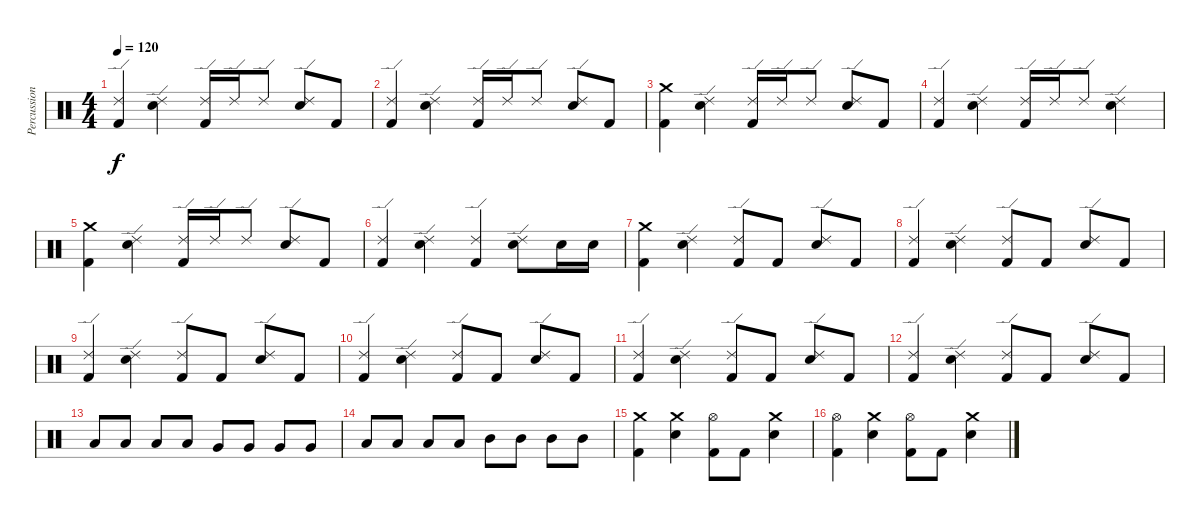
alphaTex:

\track ("Percussion" "Percussion") {instrument percussion}
\staff {score}
\articulation defaults
\ts (4 4)
\tempo 120
\clef neutral
\ks c
("Ride (edge) 2" "Kick (hit) 2").4{dy f} ("Ride (edge) 2" "Snare (hit) 2").4 ("Ride (edge) 2" "Kick (hit) 2").16 "Ride (edge) 2".16 "Ride (edge) 2".8 ("Ride (edge) 2" "Snare (hit) 2").8 "Kick (hit) 2".8 |
("Ride (edge) 2" "Kick (hit) 2").4 ("Ride (edge) 2" "Snare (hit) 2").4 ("Ride (edge) 2" "Kick (hit) 2").16 "Ride (edge) 2".16 "Ride (edge) 2".8 ("Ride (edge) 2" "Snare (hit) 2").8 "Kick (hit) 2".8 |
("Crash medium (hit)" "Kick (hit) 2").4 ("Ride (edge) 2" "Snare (hit) 2").4 ("Ride (edge) 2" "Kick (hit) 2").16 "Ride (edge) 2".16 "Ride (edge) 2".8 ("Ride (edge) 2" "Snare (hit) 2").8 "Kick (hit) 2".8 |
("Ride (edge) 2" "Kick (hit) 2").4 ("Ride (edge) 2" "Snare (hit) 2").4 ("Ride (edge) 2" "Kick (hit) 2").16 "Ride (edge) 2".16 "Ride (edge) 2".8 ("Ride (edge) 2" "Snare (hit) 2").4 |
("Crash medium (hit)" "Kick (hit) 2").4 ("Ride (edge) 2" "Snare (hit) 2").4 ("Ride (edge) 2" "Kick (hit) 2").16 "Ride (edge) 2".16 "Ride (edge) 2".8 ("Ride (edge) 2" "Snare (hit) 2").8 "Kick (hit) 2".8 |
("Ride (edge) 2" "Kick (hit) 2").4 ("Ride (edge) 2" "Snare (hit) 2").4 ("Ride (edge) 2" "Kick (hit) 2").4 ("Ride (edge) 2" "Snare (hit) 2").8 "Snare (hit) 2".16 "Snare (hit) 2".16 |
("Crash medium (hit)" "Kick (hit) 2").4 ("Ride (edge) 2" "Snare (hit) 2").4 ("Ride (edge) 2" "Kick (hit) 2").8 "Kick (hit) 2".8 ("Ride (edge) 2" "Snare (hit) 2").8 "Kick (hit) 2".8 |
("Ride (edge) 2" "Kick (hit) 2").4 ("Ride (edge) 2" "Snare (hit) 2").4 ("Ride (edge) 2" "Kick (hit) 2").8 "Kick (hit) 2".8 ("Ride (edge) 2" "Snare (hit) 2").8 "Kick (hit) 2".8 |
("Ride (edge) 2" "Kick (hit) 2").4 ("Ride (edge) 2" "Snare (hit) 2").4 ("Ride (edge) 2" "Kick (hit) 2").8 "Kick (hit) 2".8 ("Ride (edge) 2" "Snare (hit) 2").8 "Kick (hit) 2".8 |
("Ride (edge) 2" "Kick (hit) 2").4 ("Ride (edge) 2" "Snare (hit) 2").4 ("Ride (edge) 2" "Kick (hit) 2").8 "Kick (hit) 2".8 ("Ride (edge) 2" "Snare (hit) 2").8 "Kick (hit) 2".8 |
("Ride (edge) 2" "Kick (hit) 2").4 ("Ride (edge) 2" "Snare (hit) 2").4 ("Ride (edge) 2" "Kick (hit) 2").8 "Kick (hit) 2".8 ("Ride (edge) 2" "Snare (hit) 2").8 "Kick (hit) 2".8 |
("Ride (edge) 2" "Kick (hit) 2").4 ("Ride (edge) 2" "Snare (hit) 2").4 ("Ride (edge) 2" "Kick (hit) 2").8 "Kick (hit) 2".8 ("Ride (edge) 2" "Snare (hit) 2").8 "Kick (hit) 2".8 |
"Low Tom (hit)".8 "Low Tom (hit)".8 "Low Tom (hit)".8 "Low Tom (hit)".8 "Very Low Tom (hit)".8 "Very Low Tom (hit)".8 "Very Low Tom (hit)".8 "Very Low Tom (hit)".8 |
"Low Tom (hit)".8 "Low Tom (hit)".8 "Low Tom (hit)".8 "Low Tom (hit)".8 "Mid Tom (hit)".8 "Mid Tom (hit)".8 "Mid Tom (hit)".8 "Mid Tom (hit)".8 |
("Crash medium (hit)" "Kick (hit) 2").4 ("Crash medium (hit)" "Snare (hit) 2").4 ("Hi-Hat (open)" "Kick (hit) 2").8 "Kick (hit) 2".8 ("Crash medium (hit)" "Snare (hit) 2").4 |
("Hi-Hat (open)" "Kick (hit) 2").4 ("Crash medium (hit)" "Snare (hit) 2").4 ("Hi-Hat (open)" "Kick (hit) 2").8 "Kick (hit) 2".8 ("Crash medium (hit)" "Snare (hit) 2").4
